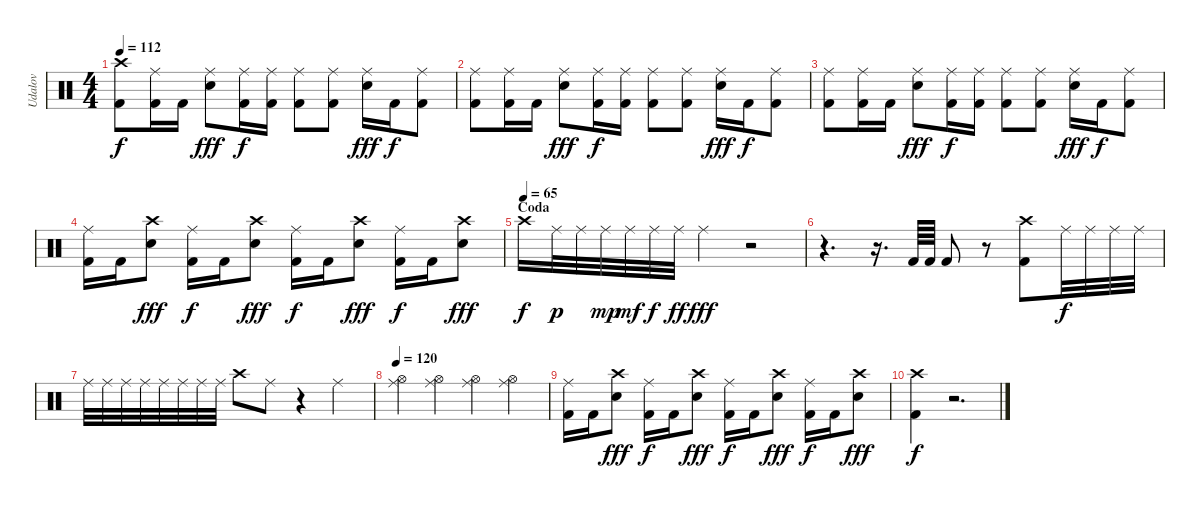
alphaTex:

\track ("Udalov" "Udalov") {instrument percussion}
\staff {score}
\articulation defaults
\ts (4 4)
\tempo 112
\clef neutral
\ks c
("Crash high (hit)" "Kick (hit) 2").8{dy f} ("Ride (middle)" "Kick (hit) 2").16 "Kick (hit) 2".16 ("Ride (middle)" "Electric Snare (hit)").8{dy fff} ("Ride (middle)" "Kick (hit) 2").16{dy f} ("Ride (middle)" "Kick (hit) 2").16 ("Ride (middle)" "Kick (hit) 2").8 ("Ride (middle)" "Kick (hit) 2").8 ("Ride (middle)" "Electric Snare (hit)").16{dy fff} "Kick (hit) 2".16{dy f} ("Ride (middle)" "Kick (hit) 2").8 |
("Ride (middle)" "Kick (hit) 2").8 ("Ride (middle)" "Kick (hit) 2").16 "Kick (hit) 2".16 ("Ride (middle)" "Electric Snare (hit)").8{dy fff} ("Ride (middle)" "Kick (hit) 2").16{dy f} ("Ride (middle)" "Kick (hit) 2").16 ("Ride (middle)" "Kick (hit) 2").8 ("Ride (middle)" "Kick (hit) 2").8 ("Ride (middle)" "Electric Snare (hit)").16{dy fff} "Kick (hit) 2".16{dy f} ("Ride (middle)" "Kick (hit) 2").8 |
("Ride (middle)" "Kick (hit) 2").8 ("Ride (middle)" "Kick (hit) 2").16 "Kick (hit) 2".16 ("Ride (middle)" "Electric Snare (hit)").8{dy fff} ("Ride (middle)" "Kick (hit) 2").16{dy f} ("Ride (middle)" "Kick (hit) 2").16 ("Ride (middle)" "Kick (hit) 2").8 ("Ride (middle)" "Kick (hit) 2").8 ("Ride (middle)" "Electric Snare (hit)").16{dy fff} "Kick (hit) 2".16{dy f} ("Ride (middle)" "Kick (hit) 2").8 |
("Ride (middle)" "Kick (hit) 2").16 "Kick (hit) 2".16 ("Crash high (hit)" "Electric Snare (hit)").8{dy fff} ("Ride (middle)" "Kick (hit) 2").16{dy f} "Kick (hit) 2".16 ("Crash high (hit)" "Electric Snare (hit)").8{dy fff} ("Ride (middle)" "Kick (hit) 2").16{dy f} "Kick (hit) 2".16 ("Crash high (hit)" "Electric Snare (hit)").8{dy fff} ("Ride (middle)" "Kick (hit) 2").16{dy f} "Kick (hit) 2".16 ("Crash high (hit)" "Electric Snare (hit)").8{dy fff} |
\section ("" "Coda")
\tempo (65)
"Crash high (hit)".16{dy f} "Ride (middle)".32{dy p} "Ride (middle)".32 "Ride (middle)".32{dy mp} "Ride (middle)".32{dy mf} "Ride (middle)".32{dy f} "Ride (middle)".32{dy ff} "Ride (middle)".4{dy fff} r.2 |
r.4{d} r.16{d} "Kick (hit) 2".64 "Kick (hit) 2".64 "Kick (hit) 2".8 r.8 ("Crash high (hit)" "Kick (hit) 2").8 "Ride (middle)".32{dy f} "Ride (middle)".32 "Ride (middle)".32 "Ride (middle)".32 |
"Ride (middle)".32 "Ride (middle)".32 "Ride (middle)".32 "Ride (middle)".32 "Ride (middle)".32 "Ride (middle)".32 "Ride (middle)".32 "Ride (middle)".32 "Crash high (hit)".8 "Ride (middle)".8 r.4 "Ride (middle)".4 |
\tempo 120
("Hi-Hat (open)" "Ride (middle)").4 ("Hi-Hat (open)" "Ride (middle)").4 ("Hi-Hat (open)" "Ride (middle)").4 ("Hi-Hat (open)" "Ride (middle)").4 |
("Ride (middle)" "Kick (hit) 2").16 "Kick (hit) 2".16 ("Crash high (hit)" "Electric Snare (hit)").8{dy fff} ("Ride (middle)" "Kick (hit) 2").16{dy f} "Kick (hit) 2".16 ("Crash high (hit)" "Electric Snare (hit)").8{dy fff} ("Ride (middle)" "Kick (hit) 2").16{dy f} "Kick (hit) 2".16 ("Crash high (hit)" "Electric Snare (hit)").8{dy fff} ("Ride (middle)" "Kick (hit) 2").16{dy f} "Kick (hit) 2".16 ("Crash high (hit)" "Electric Snare (hit)").8{dy fff} |
("Crash high (hit)" "Kick (hit) 2").4{dy f} r.2{d}
